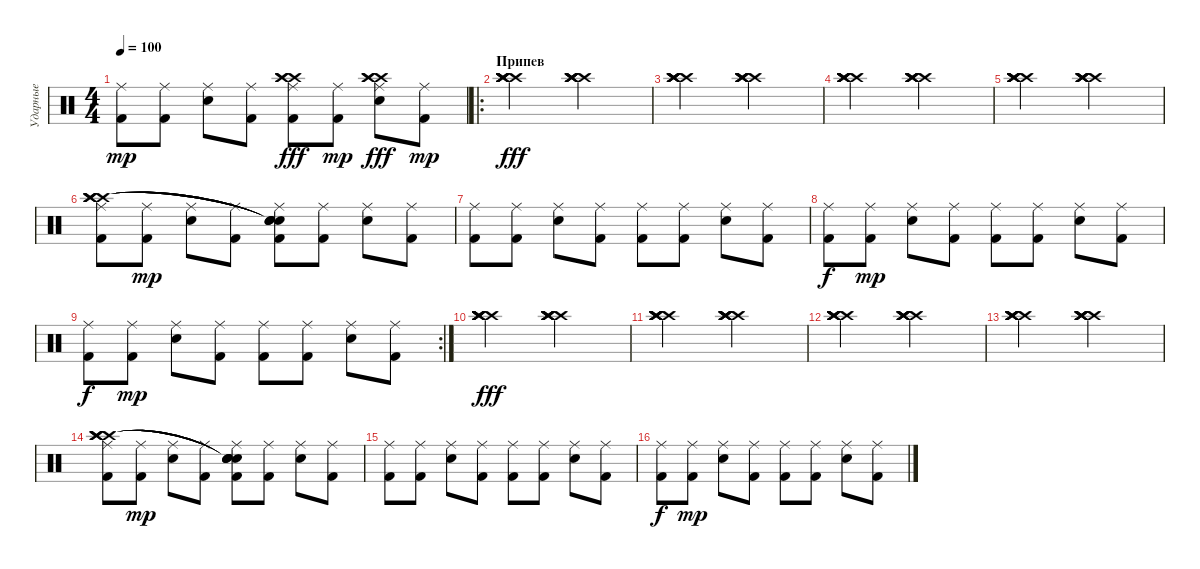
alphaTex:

\track ("Ударные" "Ударные") {instrument percussion}
\staff {score}
\articulation defaults
\ts (4 4)
\section ("" "")
\tempo 100
\clef neutral
\ks c
("Kick (hit) 2" "Ride (middle)").8{dy mp} ("Kick (hit) 2" "Ride (middle)").8 ("Electric Snare (hit)" "Ride (middle)").8 ("Kick (hit) 2" "Ride (middle)").8 ("Kick (hit) 2" "Ride (middle)" "Crash high (hit)" "Crash high (hit)" "Crash high (hit)").8{dy fff} ("Kick (hit) 2" "Ride (middle)").8{dy mp} ("Electric Snare (hit)" "Ride (middle)" "Crash high (hit)" "Crash high (hit)" "Crash high (hit)").8{dy fff} ("Kick (hit) 2" "Ride (middle)").8{dy mp} |
\ro
\section ("" "Припев")
("Crash high (hit)" "Crash high (hit)" "Crash high (hit)" "Crash high (hit)" "Crash high (hit)" "Crash high (hit)").2{dy fff} ("Crash high (hit)" "Crash high (hit)" "Crash high (hit)" "Crash high (hit)" "Crash high (hit)" "Crash high (hit)").2 |
("Crash high (hit)" "Crash high (hit)" "Crash high (hit)" "Crash high (hit)" "Crash high (hit)" "Crash high (hit)").2 ("Crash high (hit)" "Crash high (hit)" "Crash high (hit)" "Crash high (hit)" "Crash high (hit)" "Crash high (hit)").2 |
("Crash high (hit)" "Crash high (hit)" "Crash high (hit)" "Crash high (hit)" "Crash high (hit)" "Crash high (hit)").2 ("Crash high (hit)" "Crash high (hit)" "Crash high (hit)" "Crash high (hit)" "Crash high (hit)" "Crash high (hit)").2 |
("Crash high (hit)" "Crash high (hit)" "Crash high (hit)" "Crash high (hit)" "Crash high (hit)" "Crash high (hit)").2 ("Crash high (hit)" "Crash high (hit)" "Crash high (hit)" "Crash high (hit)" "Crash high (hit)" "Crash high (hit)").2 |
("Kick (hit) 2" "Ride (middle)" "Crash high (hit)" "Crash high (hit)" "Crash high (hit)" "Crash high (hit)").8 ("Kick (hit) 2" "Ride (middle)").8{dy mp} ("Electric Snare (hit)" "Ride (middle)").8 ("Kick (hit) 2" "Ride (middle)").8 ("Kick (hit) 2" "Ride (middle)" "Snare (hit)"{t} "Snare (hit)"{t} "Snare (hit)"{t} "Snare (hit)"{t}).8 ("Kick (hit) 2" "Ride (middle)").8 ("Electric Snare (hit)" "Ride (middle)").8 ("Kick (hit) 2" "Ride (middle)").8 |
("Kick (hit) 2" "Ride (middle)").8 ("Kick (hit) 2" "Ride (middle)").8 ("Electric Snare (hit)" "Ride (middle)").8 ("Kick (hit) 2" "Ride (middle)").8 ("Kick (hit) 2" "Ride (middle)").8 ("Kick (hit) 2" "Ride (middle)").8 ("Electric Snare (hit)" "Ride (middle)").8 ("Kick (hit) 2" "Ride (middle)").8 |
("Kick (hit) 2" "Ride (middle)").8{dy f} ("Kick (hit) 2" "Ride (middle)").8{dy mp} ("Electric Snare (hit)" "Ride (middle)").8 ("Kick (hit) 2" "Ride (middle)").8 ("Kick (hit) 2" "Ride (middle)").8 ("Kick (hit) 2" "Ride (middle)").8 ("Electric Snare (hit)" "Ride (middle)").8 ("Kick (hit) 2" "Ride (middle)").8 |
\rc 2
("Kick (hit) 2" "Ride (middle)").8{dy f} ("Kick (hit) 2" "Ride (middle)").8{dy mp} ("Electric Snare (hit)" "Ride (middle)").8 ("Kick (hit) 2" "Ride (middle)").8 ("Kick (hit) 2" "Ride (middle)").8 ("Kick (hit) 2" "Ride (middle)").8 ("Electric Snare (hit)" "Ride (middle)").8 ("Kick (hit) 2" "Ride (middle)").8 |
("Crash high (hit)" "Crash high (hit)" "Crash high (hit)" "Crash high (hit)" "Crash high (hit)" "Crash high (hit)").2{dy fff} ("Crash high (hit)" "Crash high (hit)" "Crash high (hit)" "Crash high (hit)" "Crash high (hit)" "Crash high (hit)").2 |
("Crash high (hit)" "Crash high (hit)" "Crash high (hit)" "Crash high (hit)" "Crash high (hit)" "Crash high (hit)").2 ("Crash high (hit)" "Crash high (hit)" "Crash high (hit)" "Crash high (hit)" "Crash high (hit)" "Crash high (hit)").2 |
("Crash high (hit)" "Crash high (hit)" "Crash high (hit)" "Crash high (hit)" "Crash high (hit)" "Crash high (hit)").2 ("Crash high (hit)" "Crash high (hit)" "Crash high (hit)" "Crash high (hit)" "Crash high (hit)" "Crash high (hit)").2 |
("Crash high (hit)" "Crash high (hit)" "Crash high (hit)" "Crash high (hit)" "Crash high (hit)" "Crash high (hit)").2 ("Crash high (hit)" "Crash high (hit)" "Crash high (hit)" "Crash high (hit)" "Crash high (hit)" "Crash high (hit)").2 |
("Kick (hit) 2" "Ride (middle)" "Crash high (hit)" "Crash high (hit)" "Crash high (hit)" "Crash high (hit)").8 ("Kick (hit) 2" "Ride (middle)").8{dy mp} ("Electric Snare (hit)" "Ride (middle)").8 ("Kick (hit) 2" "Ride (middle)").8 ("Kick (hit) 2" "Ride (middle)" "Snare (hit)"{t} "Snare (hit)"{t} "Snare (hit)"{t} "Snare (hit)"{t}).8 ("Kick (hit) 2" "Ride (middle)").8 ("Electric Snare (hit)" "Ride (middle)").8 ("Kick (hit) 2" "Ride (middle)").8 |
("Kick (hit) 2" "Ride (middle)").8 ("Kick (hit) 2" "Ride (middle)").8 ("Electric Snare (hit)" "Ride (middle)").8 ("Kick (hit) 2" "Ride (middle)").8 ("Kick (hit) 2" "Ride (middle)").8 ("Kick (hit) 2" "Ride (middle)").8 ("Electric Snare (hit)" "Ride (middle)").8 ("Kick (hit) 2" "Ride (middle)").8 |
("Kick (hit) 2" "Ride (middle)").8{dy f} ("Kick (hit) 2" "Ride (middle)").8{dy mp} ("Electric Snare (hit)" "Ride (middle)").8 ("Kick (hit) 2" "Ride (middle)").8 ("Kick (hit) 2" "Ride (middle)").8 ("Kick (hit) 2" "Ride (middle)").8 ("Electric Snare (hit)" "Ride (middle)").8 ("Kick (hit) 2" "Ride (middle)").8
